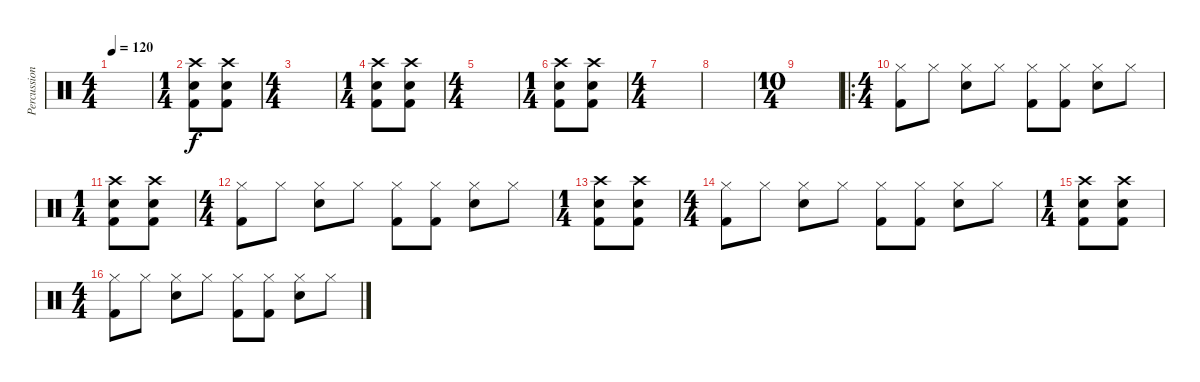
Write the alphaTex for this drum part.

\track ("Percussion" "Percussion") {instrument percussion}
\staff {score}
\articulation defaults
\ts (4 4)
\tempo 120
\clef neutral
\ks c
|
\ts (1 4)
("Crash high (hit)" "Electric Snare (hit)" "Kick (hit) 2").8 ("Crash high (hit)" "Electric Snare (hit)" "Kick (hit) 2").8 |
\ts (4 4)
|
\ts (1 4)
("Crash high (hit)" "Electric Snare (hit)" "Kick (hit) 2").8 ("Crash high (hit)" "Electric Snare (hit)" "Kick (hit) 2").8 |
\ts (4 4)
|
\ts (1 4)
("Crash high (hit)" "Electric Snare (hit)" "Kick (hit) 2").8 ("Crash high (hit)" "Electric Snare (hit)" "Kick (hit) 2").8 |
\ts (4 4)
|
|
\ts (10 4)
|
\ro
\ts (4 4)
("Hi-Hat (closed)" "Kick (hit) 2").8 "Hi-Hat (closed)".8 ("Hi-Hat (closed)" "Electric Snare (hit)").8 "Hi-Hat (closed)".8 ("Hi-Hat (closed)" "Kick (hit) 2").8 ("Hi-Hat (closed)" "Kick (hit) 2").8 ("Hi-Hat (closed)" "Electric Snare (hit)").8 "Hi-Hat (closed)".8 |
\ts (1 4)
("Crash high (hit)" "Electric Snare (hit)" "Kick (hit) 2").8 ("Crash high (hit)" "Electric Snare (hit)" "Kick (hit) 2").8 |
\ts (4 4)
("Hi-Hat (closed)" "Kick (hit) 2").8 "Hi-Hat (closed)".8 ("Hi-Hat (closed)" "Electric Snare (hit)").8 "Hi-Hat (closed)".8 ("Hi-Hat (closed)" "Kick (hit) 2").8 ("Hi-Hat (closed)" "Kick (hit) 2").8 ("Hi-Hat (closed)" "Electric Snare (hit)").8 "Hi-Hat (closed)".8 |
\ts (1 4)
("Crash high (hit)" "Electric Snare (hit)" "Kick (hit) 2").8 ("Crash high (hit)" "Electric Snare (hit)" "Kick (hit) 2").8 |
\ts (4 4)
("Hi-Hat (closed)" "Kick (hit) 2").8 "Hi-Hat (closed)".8 ("Hi-Hat (closed)" "Electric Snare (hit)").8 "Hi-Hat (closed)".8 ("Hi-Hat (closed)" "Kick (hit) 2").8 ("Hi-Hat (closed)" "Kick (hit) 2").8 ("Hi-Hat (closed)" "Electric Snare (hit)").8 "Hi-Hat (closed)".8 |
\ts (1 4)
("Crash high (hit)" "Electric Snare (hit)" "Kick (hit) 2").8 ("Crash high (hit)" "Electric Snare (hit)" "Kick (hit) 2").8 |
\ts (4 4)
("Hi-Hat (closed)" "Kick (hit) 2").8 "Hi-Hat (closed)".8 ("Hi-Hat (closed)" "Electric Snare (hit)").8 "Hi-Hat (closed)".8 ("Hi-Hat (closed)" "Kick (hit) 2").8 ("Hi-Hat (closed)" "Kick (hit) 2").8 ("Hi-Hat (closed)" "Electric Snare (hit)").8 "Hi-Hat (closed)".8
